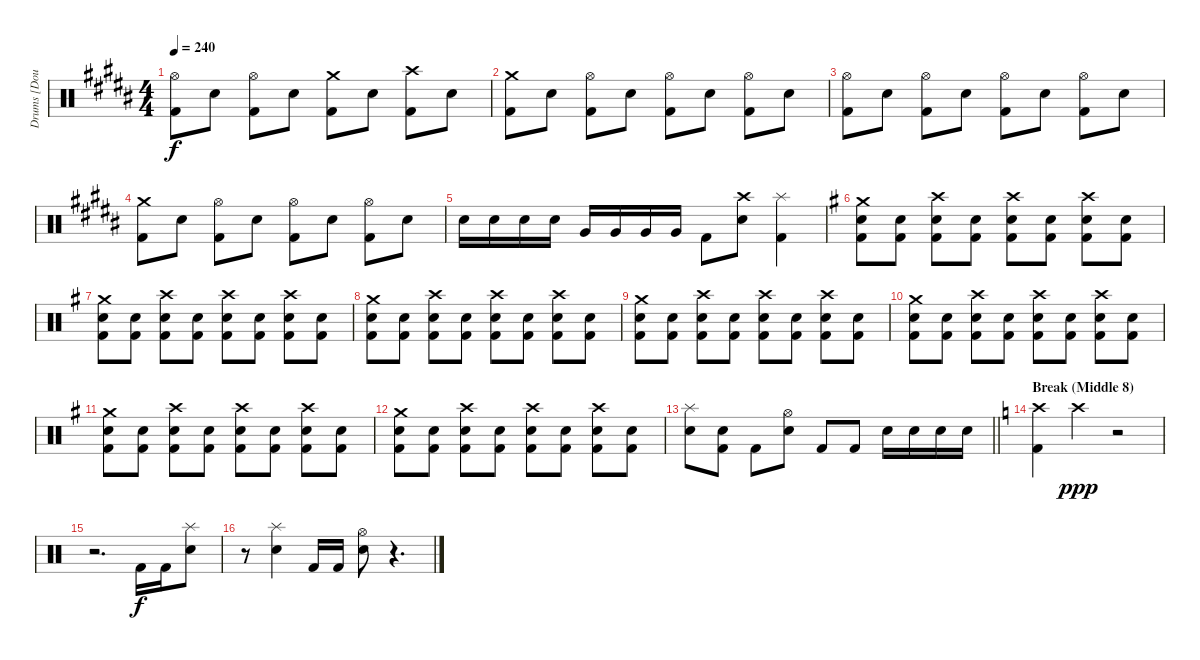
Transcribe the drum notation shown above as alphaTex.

\track ("Drums [Doug Anderson]" "Drums [Dou") {instrument percussion}
\staff {score}
\articulation defaults
\ts (4 4)
\tempo 240
\clef neutral
\ks b
("Hi-Hat (open)" "Kick (hit) 2").8{dy f} "Electric Snare (hit)".8 ("Hi-Hat (open)" "Kick (hit) 2").8 "Electric Snare (hit)".8 ("Crash medium (hit)" "Kick (hit) 2").8 "Electric Snare (hit)".8 ("Crash high (hit)" "Kick (hit) 2").8 "Electric Snare (hit)".8 |
("Crash medium (hit)" "Kick (hit) 2").8 "Electric Snare (hit)".8 ("Hi-Hat (open)" "Kick (hit) 2").8 "Electric Snare (hit)".8 ("Hi-Hat (open)" "Kick (hit) 2").8 "Electric Snare (hit)".8 ("Hi-Hat (open)" "Kick (hit) 2").8 "Electric Snare (hit)".8 |
("Hi-Hat (open)" "Kick (hit) 2").8 "Electric Snare (hit)".8 ("Hi-Hat (open)" "Kick (hit) 2").8 "Electric Snare (hit)".8 ("Hi-Hat (open)" "Kick (hit) 2").8 "Electric Snare (hit)".8 ("Hi-Hat (open)" "Kick (hit) 2").8 "Electric Snare (hit)".8 |
("Crash medium (hit)" "Kick (hit) 2").8 "Electric Snare (hit)".8 ("Hi-Hat (open)" "Kick (hit) 2").8 "Electric Snare (hit)".8 ("Hi-Hat (open)" "Kick (hit) 2").8 "Electric Snare (hit)".8 ("Hi-Hat (open)" "Kick (hit) 2").8 "Electric Snare (hit)".8 |
"Electric Snare (hit)".16 "Electric Snare (hit)".16 "Electric Snare (hit)".16 "Electric Snare (hit)".16 "Very Low Tom (hit)".16 "Very Low Tom (hit)".16 "Very Low Tom (hit)".16 "Very Low Tom (hit)".16 "Kick (hit) 2".8 ("Crash high (hit)" "Electric Snare (hit)").8 ("Splash (hit)" "Kick (hit) 2").4 |
\ks eminor
("Crash medium (hit)" "Electric Snare (hit)" "Kick (hit) 2").8 ("Electric Snare (hit)" "Kick (hit) 2").8 ("Crash high (hit)" "Electric Snare (hit)" "Kick (hit) 2").8 ("Electric Snare (hit)" "Kick (hit) 2").8 ("Crash high (hit)" "Electric Snare (hit)" "Kick (hit) 2").8 ("Electric Snare (hit)" "Kick (hit) 2").8 ("Crash high (hit)" "Electric Snare (hit)" "Kick (hit) 2").8 ("Electric Snare (hit)" "Kick (hit) 2").8 |
("Crash medium (hit)" "Electric Snare (hit)" "Kick (hit) 2").8 ("Electric Snare (hit)" "Kick (hit) 2").8 ("Crash high (hit)" "Electric Snare (hit)" "Kick (hit) 2").8 ("Electric Snare (hit)" "Kick (hit) 2").8 ("Crash high (hit)" "Electric Snare (hit)" "Kick (hit) 2").8 ("Electric Snare (hit)" "Kick (hit) 2").8 ("Crash high (hit)" "Electric Snare (hit)" "Kick (hit) 2").8 ("Electric Snare (hit)" "Kick (hit) 2").8 |
("Crash medium (hit)" "Electric Snare (hit)" "Kick (hit) 2").8 ("Electric Snare (hit)" "Kick (hit) 2").8 ("Crash high (hit)" "Electric Snare (hit)" "Kick (hit) 2").8 ("Electric Snare (hit)" "Kick (hit) 2").8 ("Crash high (hit)" "Electric Snare (hit)" "Kick (hit) 2").8 ("Electric Snare (hit)" "Kick (hit) 2").8 ("Crash high (hit)" "Electric Snare (hit)" "Kick (hit) 2").8 ("Electric Snare (hit)" "Kick (hit) 2").8 |
("Crash medium (hit)" "Electric Snare (hit)" "Kick (hit) 2").8 ("Electric Snare (hit)" "Kick (hit) 2").8 ("Crash high (hit)" "Electric Snare (hit)" "Kick (hit) 2").8 ("Electric Snare (hit)" "Kick (hit) 2").8 ("Crash high (hit)" "Electric Snare (hit)" "Kick (hit) 2").8 ("Electric Snare (hit)" "Kick (hit) 2").8 ("Crash high (hit)" "Electric Snare (hit)" "Kick (hit) 2").8 ("Electric Snare (hit)" "Kick (hit) 2").8 |
("Crash medium (hit)" "Electric Snare (hit)" "Kick (hit) 2").8 ("Electric Snare (hit)" "Kick (hit) 2").8 ("Crash high (hit)" "Electric Snare (hit)" "Kick (hit) 2").8 ("Electric Snare (hit)" "Kick (hit) 2").8 ("Crash high (hit)" "Electric Snare (hit)" "Kick (hit) 2").8 ("Electric Snare (hit)" "Kick (hit) 2").8 ("Crash high (hit)" "Electric Snare (hit)" "Kick (hit) 2").8 ("Electric Snare (hit)" "Kick (hit) 2").8 |
("Crash medium (hit)" "Electric Snare (hit)" "Kick (hit) 2").8 ("Electric Snare (hit)" "Kick (hit) 2").8 ("Crash high (hit)" "Electric Snare (hit)" "Kick (hit) 2").8 ("Electric Snare (hit)" "Kick (hit) 2").8 ("Crash high (hit)" "Electric Snare (hit)" "Kick (hit) 2").8 ("Electric Snare (hit)" "Kick (hit) 2").8 ("Crash high (hit)" "Electric Snare (hit)" "Kick (hit) 2").8 ("Electric Snare (hit)" "Kick (hit) 2").8 |
("Crash medium (hit)" "Electric Snare (hit)" "Kick (hit) 2").8 ("Electric Snare (hit)" "Kick (hit) 2").8 ("Crash high (hit)" "Electric Snare (hit)" "Kick (hit) 2").8 ("Electric Snare (hit)" "Kick (hit) 2").8 ("Crash high (hit)" "Electric Snare (hit)" "Kick (hit) 2").8 ("Electric Snare (hit)" "Kick (hit) 2").8 ("Crash high (hit)" "Electric Snare (hit)" "Kick (hit) 2").8 ("Electric Snare (hit)" "Kick (hit) 2").8 |
\barLineRight lightlight
("Splash (hit)" "Electric Snare (hit)").8 ("Electric Snare (hit)" "Kick (hit) 2").8 "Kick (hit) 2".8 ("Hi-Hat (open)" "Electric Snare (hit)").8 "Kick (hit) 2".8 "Kick (hit) 2".8 "Electric Snare (hit)".16 "Electric Snare (hit)".16 "Electric Snare (hit)".16 "Electric Snare (hit)".16 |
\section ("" "Break (Middle 8)")
\ks aminor
("Crash high (hit)" "Kick (hit) 2").4 "Crash high (hit)".4{dy ppp} r.2 |
r.2{d} "Kick (hit) 2".16{dy f} "Kick (hit) 2".16 ("Splash (hit)" "Electric Snare (hit)").8 |
r.8 ("Splash (hit)" "Electric Snare (hit)").4 "Kick (hit) 2".16 "Kick (hit) 2".16 ("Hi-Hat (open)" "Electric Snare (hit)").8 r.4{d}
